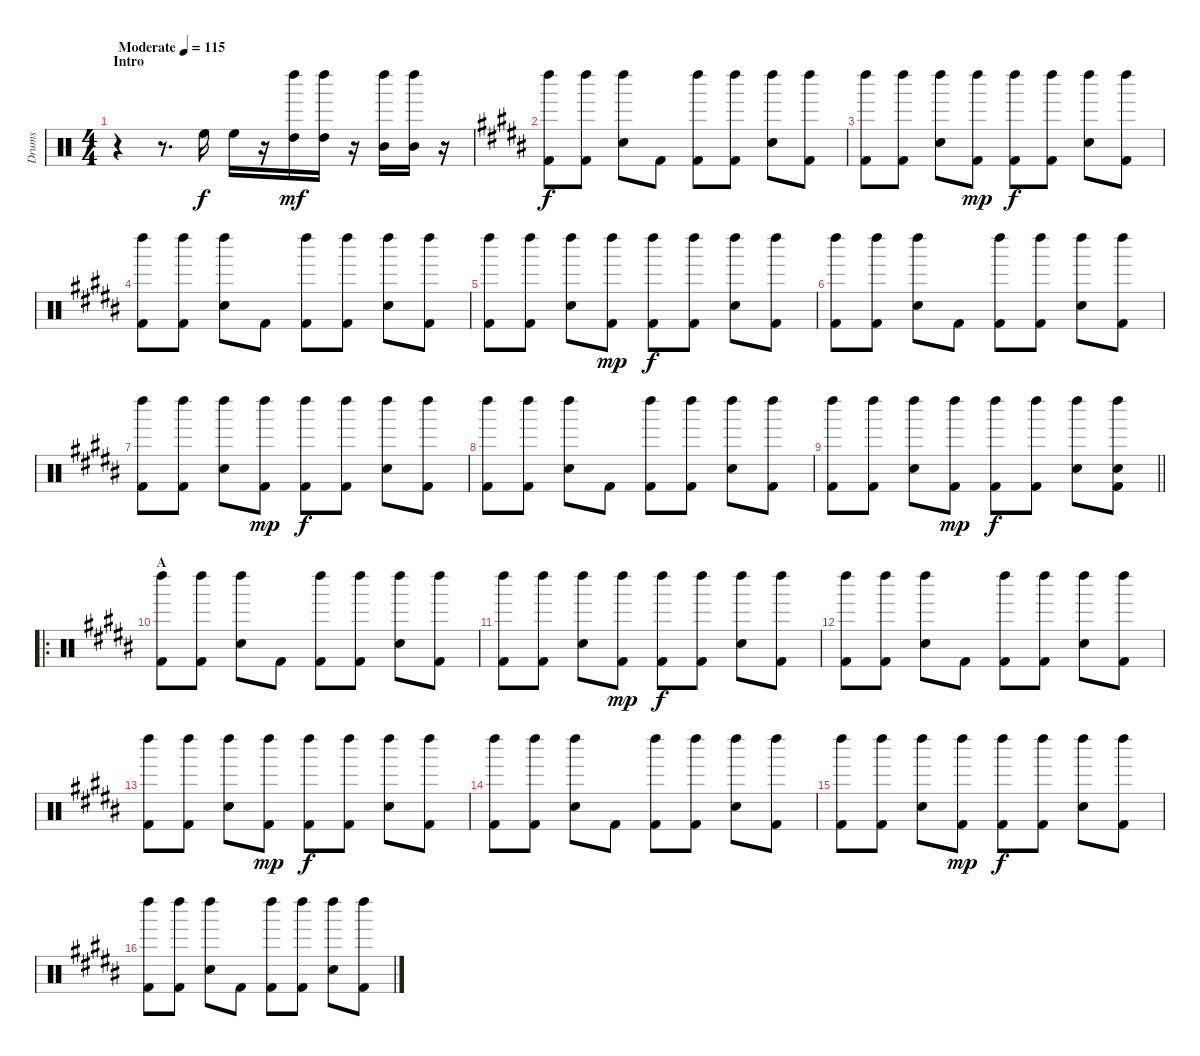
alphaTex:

\track ("Drums" "Drums") {instrument percussion}
\staff {score}
\articulation defaults
\ts (4 4)
\section ("" "Intro")
\tempo (115 "Moderate")
\clef neutral
\ks c
r.4{dy f} r.8{d} "High Floor Tom (hit)".16{balance 16} "High Floor Tom (hit)".16 r.16 ("High Tom (hit)" "Left Maraca (hit)").16{dy mf balance 8} ("High Tom (hit)" "Left Maraca (hit)").16 r.16 ("Mid Tom (hit)" "Left Maraca (hit)").16{balance 0} ("Mid Tom (hit)" "Left Maraca (hit)").16 r.16 |
\ks b
("Kick (hit) 2" "Left Maraca (hit)").8{dy f balance 8} ("Kick (hit) 2" "Left Maraca (hit)").8 ("Electric Snare (hit)" "Left Maraca (hit)").8 "Kick (hit) 2".8 ("Kick (hit) 2" "Left Maraca (hit)").8 ("Kick (hit) 2" "Left Maraca (hit)").8 ("Electric Snare (hit)" "Left Maraca (hit)").8 ("Kick (hit) 2" "Left Maraca (hit)").8 |
("Kick (hit) 2" "Left Maraca (hit)").8 ("Kick (hit) 2" "Left Maraca (hit)").8 ("Electric Snare (hit)" "Left Maraca (hit)").8 ("Kick (hit) 2" "Left Maraca (hit)").8{dy mp} ("Kick (hit) 2" "Left Maraca (hit)").8{dy f} ("Kick (hit) 2" "Left Maraca (hit)").8 ("Electric Snare (hit)" "Left Maraca (hit)").8 ("Kick (hit) 2" "Left Maraca (hit)").8 |
("Kick (hit) 2" "Left Maraca (hit)").8 ("Kick (hit) 2" "Left Maraca (hit)").8 ("Electric Snare (hit)" "Left Maraca (hit)").8 "Kick (hit) 2".8 ("Kick (hit) 2" "Left Maraca (hit)").8 ("Kick (hit) 2" "Left Maraca (hit)").8 ("Electric Snare (hit)" "Left Maraca (hit)").8 ("Kick (hit) 2" "Left Maraca (hit)").8 |
("Kick (hit) 2" "Left Maraca (hit)").8 ("Kick (hit) 2" "Left Maraca (hit)").8 ("Electric Snare (hit)" "Left Maraca (hit)").8 ("Kick (hit) 2" "Left Maraca (hit)").8{dy mp} ("Kick (hit) 2" "Left Maraca (hit)").8{dy f} ("Kick (hit) 2" "Left Maraca (hit)").8 ("Electric Snare (hit)" "Left Maraca (hit)").8 ("Kick (hit) 2" "Left Maraca (hit)").8 |
("Kick (hit) 2" "Left Maraca (hit)").8 ("Kick (hit) 2" "Left Maraca (hit)").8 ("Electric Snare (hit)" "Left Maraca (hit)").8 "Kick (hit) 2".8 ("Kick (hit) 2" "Left Maraca (hit)").8 ("Kick (hit) 2" "Left Maraca (hit)").8 ("Electric Snare (hit)" "Left Maraca (hit)").8 ("Kick (hit) 2" "Left Maraca (hit)").8 |
("Kick (hit) 2" "Left Maraca (hit)").8 ("Kick (hit) 2" "Left Maraca (hit)").8 ("Electric Snare (hit)" "Left Maraca (hit)").8 ("Kick (hit) 2" "Left Maraca (hit)").8{dy mp} ("Kick (hit) 2" "Left Maraca (hit)").8{dy f} ("Kick (hit) 2" "Left Maraca (hit)").8 ("Electric Snare (hit)" "Left Maraca (hit)").8 ("Kick (hit) 2" "Left Maraca (hit)").8 |
("Kick (hit) 2" "Left Maraca (hit)").8 ("Kick (hit) 2" "Left Maraca (hit)").8 ("Electric Snare (hit)" "Left Maraca (hit)").8 "Kick (hit) 2".8 ("Kick (hit) 2" "Left Maraca (hit)").8 ("Kick (hit) 2" "Left Maraca (hit)").8 ("Electric Snare (hit)" "Left Maraca (hit)").8 ("Kick (hit) 2" "Left Maraca (hit)").8 |
\barLineRight lightlight
("Kick (hit) 2" "Left Maraca (hit)").8 ("Kick (hit) 2" "Left Maraca (hit)").8 ("Electric Snare (hit)" "Left Maraca (hit)").8 ("Kick (hit) 2" "Left Maraca (hit)").8{dy mp} ("Kick (hit) 2" "Left Maraca (hit)").8{dy f} ("Kick (hit) 2" "Left Maraca (hit)").8 ("Electric Snare (hit)" "Left Maraca (hit)").8 ("Electric Snare (hit)" "Kick (hit) 2" "Left Maraca (hit)").8 |
\ro
\section ("" "A")
("Kick (hit) 2" "Left Maraca (hit)").8 ("Kick (hit) 2" "Left Maraca (hit)").8 ("Electric Snare (hit)" "Left Maraca (hit)").8 "Kick (hit) 2".8 ("Kick (hit) 2" "Left Maraca (hit)").8 ("Kick (hit) 2" "Left Maraca (hit)").8 ("Electric Snare (hit)" "Left Maraca (hit)").8 ("Kick (hit) 2" "Left Maraca (hit)").8 |
("Kick (hit) 2" "Left Maraca (hit)").8 ("Kick (hit) 2" "Left Maraca (hit)").8 ("Electric Snare (hit)" "Left Maraca (hit)").8 ("Kick (hit) 2" "Left Maraca (hit)").8{dy mp} ("Kick (hit) 2" "Left Maraca (hit)").8{dy f} ("Kick (hit) 2" "Left Maraca (hit)").8 ("Electric Snare (hit)" "Left Maraca (hit)").8 ("Kick (hit) 2" "Left Maraca (hit)").8 |
("Kick (hit) 2" "Left Maraca (hit)").8 ("Kick (hit) 2" "Left Maraca (hit)").8 ("Electric Snare (hit)" "Left Maraca (hit)").8 "Kick (hit) 2".8 ("Kick (hit) 2" "Left Maraca (hit)").8 ("Kick (hit) 2" "Left Maraca (hit)").8 ("Electric Snare (hit)" "Left Maraca (hit)").8 ("Kick (hit) 2" "Left Maraca (hit)").8 |
("Kick (hit) 2" "Left Maraca (hit)").8 ("Kick (hit) 2" "Left Maraca (hit)").8 ("Electric Snare (hit)" "Left Maraca (hit)").8 ("Kick (hit) 2" "Left Maraca (hit)").8{dy mp} ("Kick (hit) 2" "Left Maraca (hit)").8{dy f} ("Kick (hit) 2" "Left Maraca (hit)").8 ("Electric Snare (hit)" "Left Maraca (hit)").8 ("Kick (hit) 2" "Left Maraca (hit)").8 |
("Kick (hit) 2" "Left Maraca (hit)").8 ("Kick (hit) 2" "Left Maraca (hit)").8 ("Electric Snare (hit)" "Left Maraca (hit)").8 "Kick (hit) 2".8 ("Kick (hit) 2" "Left Maraca (hit)").8 ("Kick (hit) 2" "Left Maraca (hit)").8 ("Electric Snare (hit)" "Left Maraca (hit)").8 ("Kick (hit) 2" "Left Maraca (hit)").8 |
("Kick (hit) 2" "Left Maraca (hit)").8 ("Kick (hit) 2" "Left Maraca (hit)").8 ("Electric Snare (hit)" "Left Maraca (hit)").8 ("Kick (hit) 2" "Left Maraca (hit)").8{dy mp} ("Kick (hit) 2" "Left Maraca (hit)").8{dy f} ("Kick (hit) 2" "Left Maraca (hit)").8 ("Electric Snare (hit)" "Left Maraca (hit)").8 ("Kick (hit) 2" "Left Maraca (hit)").8 |
("Kick (hit) 2" "Left Maraca (hit)").8 ("Kick (hit) 2" "Left Maraca (hit)").8 ("Electric Snare (hit)" "Left Maraca (hit)").8 "Kick (hit) 2".8 ("Kick (hit) 2" "Left Maraca (hit)").8 ("Kick (hit) 2" "Left Maraca (hit)").8 ("Electric Snare (hit)" "Left Maraca (hit)").8 ("Kick (hit) 2" "Left Maraca (hit)").8
